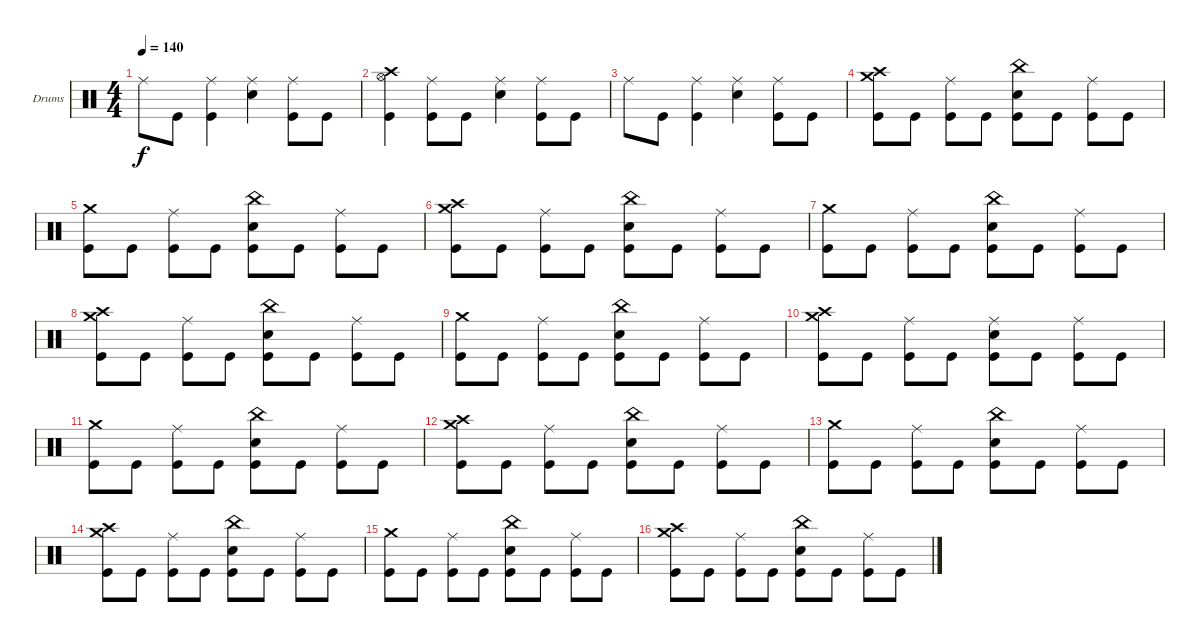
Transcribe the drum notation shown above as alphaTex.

\bracketExtendMode groupsimilarinstruments
\firstSystemTrackNameOrientation horizontal
\otherSystemsTrackNameOrientation horizontal
\track ("Drumkit" "Drums") {instrument percussion}
\staff {score}
\articulation defaults
\ts (4 4)
\tempo 140
\clef neutral
\ks c "Ride (middle)".8{dy f} "Kick (hit)".8
("Ride (middle)" "Kick (hit)").4 ("Ride (middle)" "Snare (hit) 2").4 ("Ride (middle)" "Kick (hit)").8 "Kick (hit)".8 |
("Hi-Hat (open)" "Crash high (hit)" "Kick (hit)").4 ("Ride (middle)" "Kick (hit)").8 "Kick (hit)".8 ("Ride (middle)" "Snare (hit) 2").4 ("Ride (middle)" "Kick (hit)").8 "Kick (hit)".8 |
"Ride (middle)".8 "Kick (hit)".8 ("Ride (middle)" "Kick (hit)").4 ("Ride (middle)" "Snare (hit) 2").4 ("Ride (middle)" "Kick (hit)").8 "Kick (hit)".8 |
("Crash medium (hit)" "Crash high (hit)" "Kick (hit)").8 "Kick (hit)".8 ("Ride (middle)" "Kick (hit)").8 "Kick (hit)".8 ("China (hit)" "Snare (hit) 2" "Kick (hit)").8 "Kick (hit)".8 ("Ride (middle)" "Kick (hit)").8 "Kick (hit)".8 |
("Crash medium (hit)" "Kick (hit)").8 "Kick (hit)".8 ("Ride (middle)" "Kick (hit)").8 "Kick (hit)".8 ("China (hit)" "Snare (hit) 2" "Kick (hit)").8 "Kick (hit)".8 ("Ride (middle)" "Kick (hit)").8 "Kick (hit)".8 |
("Crash medium (hit)" "Crash high (hit)" "Kick (hit)").8 "Kick (hit)".8 ("Ride (middle)" "Kick (hit)").8 "Kick (hit)".8 ("China (hit)" "Snare (hit) 2" "Kick (hit)").8 "Kick (hit)".8 ("Ride (middle)" "Kick (hit)").8 "Kick (hit)".8 |
("Crash medium (hit)" "Kick (hit)").8 "Kick (hit)".8 ("Ride (middle)" "Kick (hit)").8 "Kick (hit)".8 ("China (hit)" "Snare (hit) 2" "Kick (hit)").8 "Kick (hit)".8 ("Ride (middle)" "Kick (hit)").8 "Kick (hit)".8 |
("Crash medium (hit)" "Crash high (hit)" "Kick (hit)").8 "Kick (hit)".8 ("Ride (middle)" "Kick (hit)").8 "Kick (hit)".8 ("China (hit)" "Snare (hit) 2" "Kick (hit)").8 "Kick (hit)".8 ("Ride (middle)" "Kick (hit)").8 "Kick (hit)".8 |
("Crash medium (hit)" "Kick (hit)").8 "Kick (hit)".8 ("Ride (middle)" "Kick (hit)").8 "Kick (hit)".8 ("China (hit)" "Snare (hit) 2" "Kick (hit)").8 "Kick (hit)".8 ("Ride (middle)" "Kick (hit)").8 "Kick (hit)".8 |
("Crash medium (hit)" "Crash high (hit)" "Kick (hit)").8 "Kick (hit)".8 ("Ride (middle)" "Kick (hit)").8 "Kick (hit)".8 ("Ride (middle)" "Snare (hit) 2" "Kick (hit)").8 "Kick (hit)".8 ("Ride (middle)" "Kick (hit)").8 "Kick (hit)".8 |
("Crash medium (hit)" "Kick (hit)").8 "Kick (hit)".8 ("Ride (middle)" "Kick (hit)").8 "Kick (hit)".8 ("China (hit)" "Snare (hit) 2" "Kick (hit)").8 "Kick (hit)".8 ("Ride (middle)" "Kick (hit)").8 "Kick (hit)".8 |
("Crash medium (hit)" "Crash high (hit)" "Kick (hit)").8 "Kick (hit)".8 ("Ride (middle)" "Kick (hit)").8 "Kick (hit)".8 ("China (hit)" "Snare (hit) 2" "Kick (hit)").8 "Kick (hit)".8 ("Ride (middle)" "Kick (hit)").8 "Kick (hit)".8 |
("Crash medium (hit)" "Kick (hit)").8 "Kick (hit)".8 ("Ride (middle)" "Kick (hit)").8 "Kick (hit)".8 ("China (hit)" "Snare (hit) 2" "Kick (hit)").8 "Kick (hit)".8 ("Ride (middle)" "Kick (hit)").8 "Kick (hit)".8 |
("Crash medium (hit)" "Crash high (hit)" "Kick (hit)").8 "Kick (hit)".8 ("Ride (middle)" "Kick (hit)").8 "Kick (hit)".8 ("China (hit)" "Snare (hit) 2" "Kick (hit)").8 "Kick (hit)".8 ("Ride (middle)" "Kick (hit)").8 "Kick (hit)".8 |
("Crash medium (hit)" "Kick (hit)").8 "Kick (hit)".8 ("Ride (middle)" "Kick (hit)").8 "Kick (hit)".8 ("China (hit)" "Snare (hit) 2" "Kick (hit)").8 "Kick (hit)".8 ("Ride (middle)" "Kick (hit)").8 "Kick (hit)".8 |
("Crash medium (hit)" "Crash high (hit)" "Kick (hit)").8 "Kick (hit)".8 ("Ride (middle)" "Kick (hit)").8 "Kick (hit)".8 ("China (hit)" "Snare (hit) 2" "Kick (hit)").8 "Kick (hit)".8 ("Ride (middle)" "Kick (hit)").8 "Kick (hit)".8
